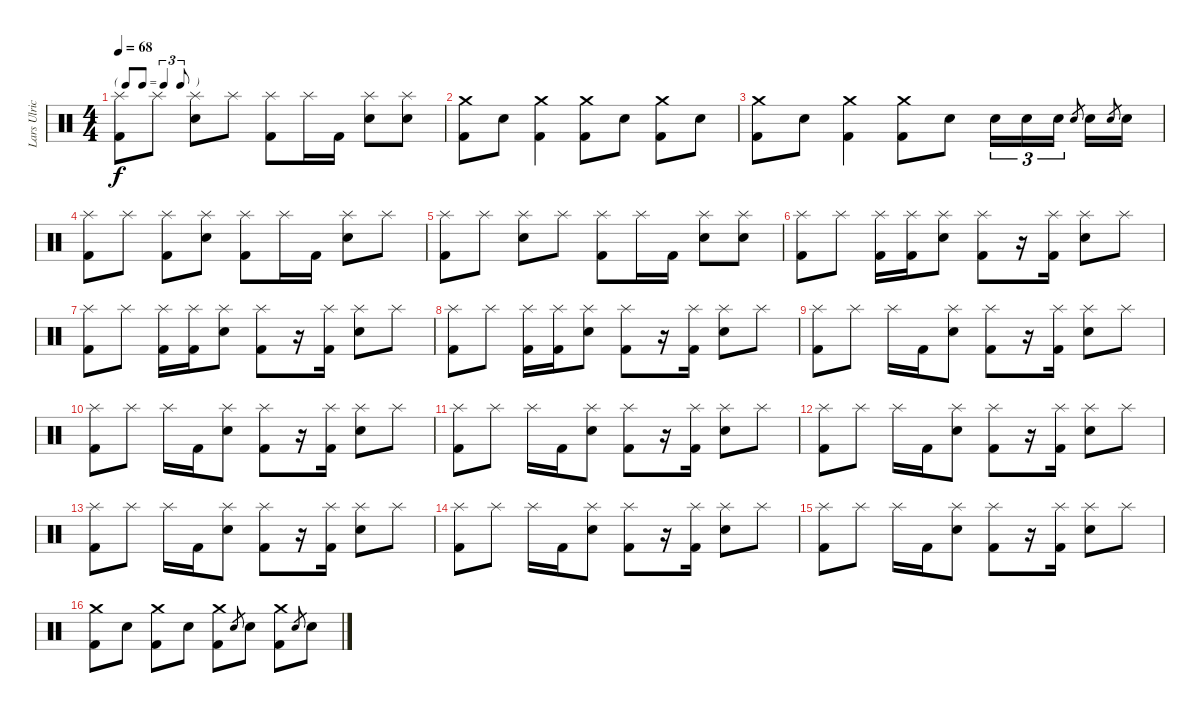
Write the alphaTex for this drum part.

\track ("Lars Ulrich" "Lars Ulric") {instrument percussion}
\staff {score}
\articulation defaults
\ts (4 4)
\tf triplet8th
\tempo 68
\clef neutral
\ks c
("Splash (hit)" "Kick (hit) 2").8{dy f} "Splash (hit)".8 ("Splash (hit)" "Snare (hit) 2").8 "Splash (hit)".8 ("Splash (hit)" "Kick (hit) 2").8 "Splash (hit)".16 "Kick (hit) 2".16 ("Splash (hit)" "Snare (hit) 2").8 ("Splash (hit)" "Snare (hit) 2").8 |
("Crash medium (hit)" "Kick (hit) 2").8 "Snare (hit) 2".8 ("Crash medium (hit)" "Kick (hit) 2").4 ("Crash medium (hit)" "Kick (hit) 2").8 "Snare (hit) 2".8 ("Crash medium (hit)" "Kick (hit) 2").8 "Snare (hit) 2".8 |
("Crash medium (hit)" "Kick (hit) 2").8 "Snare (hit) 2".8 ("Crash medium (hit)" "Kick (hit) 2").4 ("Crash medium (hit)" "Kick (hit) 2").8 "Snare (hit) 2".8 "Snare (hit) 2".16{tu (3 2)} "Snare (hit) 2".16{tu (3 2)} "Snare (hit) 2".16{tu (3 2)} "Snare (hit) 2".8{gr beam splitsecondary} "Snare (hit) 2".16 "Snare (hit) 2".8{gr} "Snare (hit) 2".16 |
("Splash (hit)" "Kick (hit) 2").8 "Splash (hit)".8 ("Splash (hit)" "Kick (hit) 2").8 ("Splash (hit)" "Snare (hit) 2").8 ("Splash (hit)" "Kick (hit) 2").8 "Splash (hit)".16 "Kick (hit) 2".16 ("Splash (hit)" "Snare (hit) 2").8 "Splash (hit)".8 |
("Splash (hit)" "Kick (hit) 2").8 "Splash (hit)".8 ("Splash (hit)" "Snare (hit) 2").8 "Splash (hit)".8 ("Splash (hit)" "Kick (hit) 2").8 "Splash (hit)".16 "Kick (hit) 2".16 ("Splash (hit)" "Snare (hit) 2").8 ("Splash (hit)" "Snare (hit) 2").8 |
("Splash (hit)" "Kick (hit) 2").8 "Splash (hit)".8 ("Splash (hit)" "Kick (hit) 2").16 ("Splash (hit)" "Kick (hit) 2").16 ("Splash (hit)" "Snare (hit) 2").8 ("Splash (hit)" "Kick (hit) 2").8 r.16 ("Splash (hit)" "Kick (hit) 2").16 ("Splash (hit)" "Snare (hit) 2").8 "Splash (hit)".8 |
("Splash (hit)" "Kick (hit) 2").8 "Splash (hit)".8 ("Splash (hit)" "Kick (hit) 2").16 ("Splash (hit)" "Kick (hit) 2").16 ("Splash (hit)" "Snare (hit) 2").8 ("Splash (hit)" "Kick (hit) 2").8 r.16 ("Splash (hit)" "Kick (hit) 2").16 ("Splash (hit)" "Snare (hit) 2").8 "Splash (hit)".8 |
("Splash (hit)" "Kick (hit) 2").8 "Splash (hit)".8 ("Splash (hit)" "Kick (hit) 2").16 ("Splash (hit)" "Kick (hit) 2").16 ("Splash (hit)" "Snare (hit) 2").8 ("Splash (hit)" "Kick (hit) 2").8 r.16 ("Splash (hit)" "Kick (hit) 2").16 ("Splash (hit)" "Snare (hit) 2").8 "Splash (hit)".8 |
("Splash (hit)" "Kick (hit) 2").8 "Splash (hit)".8 "Splash (hit)".16 "Kick (hit) 2".16 ("Splash (hit)" "Snare (hit) 2").8 ("Splash (hit)" "Kick (hit) 2").8 r.16 ("Splash (hit)" "Kick (hit) 2").16 ("Splash (hit)" "Snare (hit) 2").8 "Splash (hit)".8 |
("Splash (hit)" "Kick (hit) 2").8 "Splash (hit)".8 "Splash (hit)".16 "Kick (hit) 2".16 ("Splash (hit)" "Snare (hit) 2").8 ("Splash (hit)" "Kick (hit) 2").8 r.16 ("Splash (hit)" "Kick (hit) 2").16 ("Splash (hit)" "Snare (hit) 2").8 "Splash (hit)".8 |
("Splash (hit)" "Kick (hit) 2").8 "Splash (hit)".8 "Splash (hit)".16 "Kick (hit) 2".16 ("Splash (hit)" "Snare (hit) 2").8 ("Splash (hit)" "Kick (hit) 2").8 r.16 ("Splash (hit)" "Kick (hit) 2").16 ("Splash (hit)" "Snare (hit) 2").8 "Splash (hit)".8 |
("Splash (hit)" "Kick (hit) 2").8 "Splash (hit)".8 "Splash (hit)".16 "Kick (hit) 2".16 ("Splash (hit)" "Snare (hit) 2").8 ("Splash (hit)" "Kick (hit) 2").8 r.16 ("Splash (hit)" "Kick (hit) 2").16 ("Splash (hit)" "Snare (hit) 2").8 "Splash (hit)".8 |
("Splash (hit)" "Kick (hit) 2").8 "Splash (hit)".8 "Splash (hit)".16 "Kick (hit) 2".16 ("Splash (hit)" "Snare (hit) 2").8 ("Splash (hit)" "Kick (hit) 2").8 r.16 ("Splash (hit)" "Kick (hit) 2").16 ("Splash (hit)" "Snare (hit) 2").8 "Splash (hit)".8 |
("Splash (hit)" "Kick (hit) 2").8 "Splash (hit)".8 "Splash (hit)".16 "Kick (hit) 2".16 ("Splash (hit)" "Snare (hit) 2").8 ("Splash (hit)" "Kick (hit) 2").8 r.16 ("Splash (hit)" "Kick (hit) 2").16 ("Splash (hit)" "Snare (hit) 2").8 "Splash (hit)".8 |
("Splash (hit)" "Kick (hit) 2").8 "Splash (hit)".8 "Splash (hit)".16 "Kick (hit) 2".16 ("Splash (hit)" "Snare (hit) 2").8 ("Splash (hit)" "Kick (hit) 2").8 r.16 ("Splash (hit)" "Kick (hit) 2").16 ("Splash (hit)" "Snare (hit) 2").8 "Splash (hit)".8 |
("Crash medium (hit)" "Kick (hit) 2").8 "Snare (hit) 2".8 ("Crash medium (hit)" "Kick (hit) 2").8 "Snare (hit) 2".8 ("Crash medium (hit)" "Kick (hit) 2").8 "Snare (hit) 2".8{gr} "Snare (hit) 2".8 ("Crash medium (hit)" "Kick (hit) 2").8 "Snare (hit) 2".8{gr} "Snare (hit) 2".8
